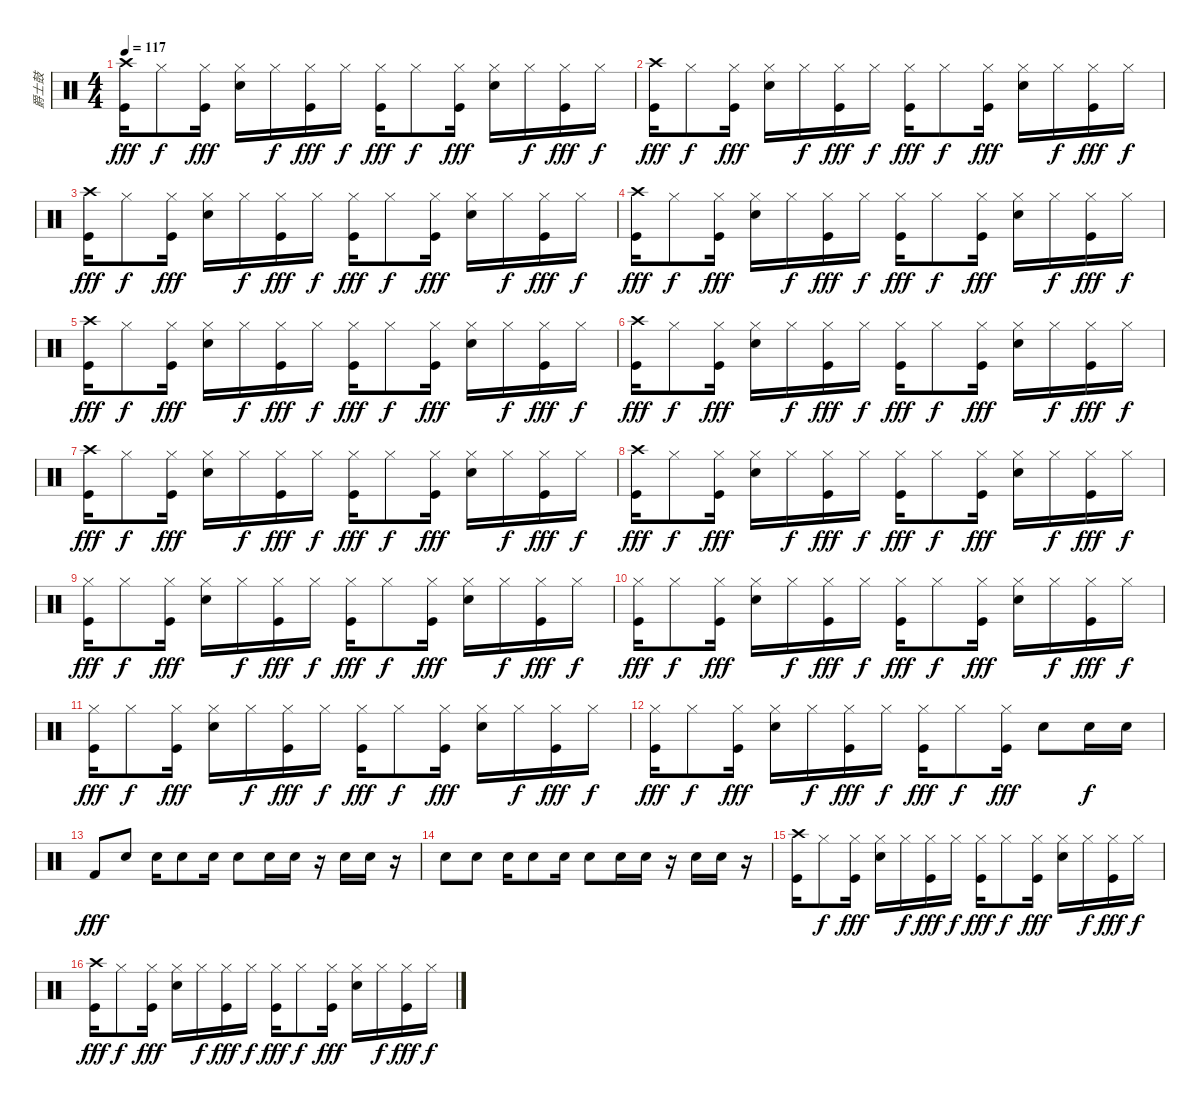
\track ("爵士鼓" "爵士鼓") {instrument percussion}
\staff {score}
\articulation defaults
\ts (4 4)
\tempo 117
\clef neutral
\ks c
("Kick (hit)" "Crash high (hit)").16{dy fff} "Hi-Hat (closed)".8{dy f} ("Kick (hit)" "Hi-Hat (closed)").16{dy fff} ("Snare (hit) 2" "Hi-Hat (closed)").16 "Hi-Hat (closed)".16{dy f} ("Kick (hit)" "Hi-Hat (closed)").16{dy fff} "Hi-Hat (closed)".16{dy f} ("Kick (hit)" "Hi-Hat (closed)").16{dy fff} "Hi-Hat (closed)".8{dy f} ("Kick (hit)" "Hi-Hat (closed)").16{dy fff} ("Snare (hit) 2" "Hi-Hat (closed)").16 "Hi-Hat (closed)".16{dy f} ("Kick (hit)" "Hi-Hat (closed)").16{dy fff} "Hi-Hat (closed)".16{dy f} |
("Kick (hit)" "Crash high (hit)").16{dy fff} "Hi-Hat (closed)".8{dy f} ("Kick (hit)" "Hi-Hat (closed)").16{dy fff} ("Snare (hit) 2" "Hi-Hat (closed)").16 "Hi-Hat (closed)".16{dy f} ("Kick (hit)" "Hi-Hat (closed)").16{dy fff} "Hi-Hat (closed)".16{dy f} ("Kick (hit)" "Hi-Hat (closed)").16{dy fff} "Hi-Hat (closed)".8{dy f} ("Kick (hit)" "Hi-Hat (closed)").16{dy fff} ("Snare (hit) 2" "Hi-Hat (closed)").16 "Hi-Hat (closed)".16{dy f} ("Kick (hit)" "Hi-Hat (closed)").16{dy fff} "Hi-Hat (closed)".16{dy f} |
("Kick (hit)" "Crash high (hit)").16{dy fff} "Hi-Hat (closed)".8{dy f} ("Kick (hit)" "Hi-Hat (closed)").16{dy fff} ("Snare (hit) 2" "Hi-Hat (closed)").16 "Hi-Hat (closed)".16{dy f} ("Kick (hit)" "Hi-Hat (closed)").16{dy fff} "Hi-Hat (closed)".16{dy f} ("Kick (hit)" "Hi-Hat (closed)").16{dy fff} "Hi-Hat (closed)".8{dy f} ("Kick (hit)" "Hi-Hat (closed)").16{dy fff} ("Snare (hit) 2" "Hi-Hat (closed)").16 "Hi-Hat (closed)".16{dy f} ("Kick (hit)" "Hi-Hat (closed)").16{dy fff} "Hi-Hat (closed)".16{dy f} |
("Kick (hit)" "Crash high (hit)").16{dy fff} "Hi-Hat (closed)".8{dy f} ("Kick (hit)" "Hi-Hat (closed)").16{dy fff} ("Snare (hit) 2" "Hi-Hat (closed)").16 "Hi-Hat (closed)".16{dy f} ("Kick (hit)" "Hi-Hat (closed)").16{dy fff} "Hi-Hat (closed)".16{dy f} ("Kick (hit)" "Hi-Hat (closed)").16{dy fff} "Hi-Hat (closed)".8{dy f} ("Kick (hit)" "Hi-Hat (closed)").16{dy fff} ("Snare (hit) 2" "Hi-Hat (closed)").16 "Hi-Hat (closed)".16{dy f} ("Kick (hit)" "Hi-Hat (closed)").16{dy fff} "Hi-Hat (closed)".16{dy f} |
("Kick (hit)" "Crash high (hit)").16{dy fff} "Hi-Hat (closed)".8{dy f} ("Kick (hit)" "Hi-Hat (closed)").16{dy fff} ("Snare (hit) 2" "Hi-Hat (closed)").16 "Hi-Hat (closed)".16{dy f} ("Kick (hit)" "Hi-Hat (closed)").16{dy fff} "Hi-Hat (closed)".16{dy f} ("Kick (hit)" "Hi-Hat (closed)").16{dy fff} "Hi-Hat (closed)".8{dy f} ("Kick (hit)" "Hi-Hat (closed)").16{dy fff} ("Snare (hit) 2" "Hi-Hat (closed)").16 "Hi-Hat (closed)".16{dy f} ("Kick (hit)" "Hi-Hat (closed)").16{dy fff} "Hi-Hat (closed)".16{dy f} |
("Kick (hit)" "Crash high (hit)").16{dy fff} "Hi-Hat (closed)".8{dy f} ("Kick (hit)" "Hi-Hat (closed)").16{dy fff} ("Snare (hit) 2" "Hi-Hat (closed)").16 "Hi-Hat (closed)".16{dy f} ("Kick (hit)" "Hi-Hat (closed)").16{dy fff} "Hi-Hat (closed)".16{dy f} ("Kick (hit)" "Hi-Hat (closed)").16{dy fff} "Hi-Hat (closed)".8{dy f} ("Kick (hit)" "Hi-Hat (closed)").16{dy fff} ("Snare (hit) 2" "Hi-Hat (closed)").16 "Hi-Hat (closed)".16{dy f} ("Kick (hit)" "Hi-Hat (closed)").16{dy fff} "Hi-Hat (closed)".16{dy f} |
("Kick (hit)" "Crash high (hit)").16{dy fff} "Hi-Hat (closed)".8{dy f} ("Kick (hit)" "Hi-Hat (closed)").16{dy fff} ("Snare (hit) 2" "Hi-Hat (closed)").16 "Hi-Hat (closed)".16{dy f} ("Kick (hit)" "Hi-Hat (closed)").16{dy fff} "Hi-Hat (closed)".16{dy f} ("Kick (hit)" "Hi-Hat (closed)").16{dy fff} "Hi-Hat (closed)".8{dy f} ("Kick (hit)" "Hi-Hat (closed)").16{dy fff} ("Snare (hit) 2" "Hi-Hat (closed)").16 "Hi-Hat (closed)".16{dy f} ("Kick (hit)" "Hi-Hat (closed)").16{dy fff} "Hi-Hat (closed)".16{dy f} |
("Kick (hit)" "Crash high (hit)").16{dy fff} "Hi-Hat (closed)".8{dy f} ("Kick (hit)" "Hi-Hat (closed)").16{dy fff} ("Snare (hit) 2" "Hi-Hat (closed)").16 "Hi-Hat (closed)".16{dy f} ("Kick (hit)" "Hi-Hat (closed)").16{dy fff} "Hi-Hat (closed)".16{dy f} ("Kick (hit)" "Hi-Hat (closed)").16{dy fff} "Hi-Hat (closed)".8{dy f} ("Kick (hit)" "Hi-Hat (closed)").16{dy fff} ("Snare (hit) 2" "Hi-Hat (closed)").16 "Hi-Hat (closed)".16{dy f} ("Kick (hit)" "Hi-Hat (closed)").16{dy fff} "Hi-Hat (closed)".16{dy f} |
("Kick (hit)" "Hi-Hat (closed)").16{dy fff} "Hi-Hat (closed)".8{dy f} ("Kick (hit)" "Hi-Hat (closed)").16{dy fff} ("Snare (hit) 2" "Hi-Hat (closed)").16 "Hi-Hat (closed)".16{dy f} ("Kick (hit)" "Hi-Hat (closed)").16{dy fff} "Hi-Hat (closed)".16{dy f} ("Kick (hit)" "Hi-Hat (closed)").16{dy fff} "Hi-Hat (closed)".8{dy f} ("Kick (hit)" "Hi-Hat (closed)").16{dy fff} ("Snare (hit) 2" "Hi-Hat (closed)").16 "Hi-Hat (closed)".16{dy f} ("Kick (hit)" "Hi-Hat (closed)").16{dy fff} "Hi-Hat (closed)".16{dy f} |
("Kick (hit)" "Hi-Hat (closed)").16{dy fff} "Hi-Hat (closed)".8{dy f} ("Kick (hit)" "Hi-Hat (closed)").16{dy fff} ("Snare (hit) 2" "Hi-Hat (closed)").16 "Hi-Hat (closed)".16{dy f} ("Kick (hit)" "Hi-Hat (closed)").16{dy fff} "Hi-Hat (closed)".16{dy f} ("Kick (hit)" "Hi-Hat (closed)").16{dy fff} "Hi-Hat (closed)".8{dy f} ("Kick (hit)" "Hi-Hat (closed)").16{dy fff} ("Snare (hit) 2" "Hi-Hat (closed)").16 "Hi-Hat (closed)".16{dy f} ("Kick (hit)" "Hi-Hat (closed)").16{dy fff} "Hi-Hat (closed)".16{dy f} |
("Kick (hit)" "Hi-Hat (closed)").16{dy fff} "Hi-Hat (closed)".8{dy f} ("Kick (hit)" "Hi-Hat (closed)").16{dy fff} ("Snare (hit) 2" "Hi-Hat (closed)").16 "Hi-Hat (closed)".16{dy f} ("Kick (hit)" "Hi-Hat (closed)").16{dy fff} "Hi-Hat (closed)".16{dy f} ("Kick (hit)" "Hi-Hat (closed)").16{dy fff} "Hi-Hat (closed)".8{dy f} ("Kick (hit)" "Hi-Hat (closed)").16{dy fff} ("Snare (hit) 2" "Hi-Hat (closed)").16 "Hi-Hat (closed)".16{dy f} ("Kick (hit)" "Hi-Hat (closed)").16{dy fff} "Hi-Hat (closed)".16{dy f} |
("Kick (hit)" "Hi-Hat (closed)").16{dy fff} "Hi-Hat (closed)".8{dy f} ("Kick (hit)" "Hi-Hat (closed)").16{dy fff} ("Snare (hit) 2" "Hi-Hat (closed)").16 "Hi-Hat (closed)".16{dy f} ("Kick (hit)" "Hi-Hat (closed)").16{dy fff} "Hi-Hat (closed)".16{dy f} ("Kick (hit)" "Hi-Hat (closed)").16{dy fff} "Hi-Hat (closed)".8{dy f} ("Kick (hit)" "Hi-Hat (closed)").16{dy fff} "Snare (hit) 2".8 "Snare (hit) 2".16{dy f} "Snare (hit) 2".16 |
"Kick (hit) 2".8{dy fff} "Snare (hit) 2".8 "Snare (hit) 2".16 "Snare (hit) 2".8 "Snare (hit) 2".16 "Snare (hit) 2".8 "Snare (hit) 2".16 "Snare (hit) 2".16 r.16 "Snare (hit) 2".16 "Snare (hit) 2".16 r.16 |
"Snare (hit) 2".8 "Snare (hit) 2".8 "Snare (hit) 2".16 "Snare (hit) 2".8 "Snare (hit) 2".16 "Snare (hit) 2".8 "Snare (hit) 2".16 "Snare (hit) 2".16 r.16 "Snare (hit) 2".16 "Snare (hit) 2".16 r.16 |
("Kick (hit)" "Crash high (hit)").16 "Hi-Hat (closed)".8{dy f} ("Kick (hit)" "Hi-Hat (closed)").16{dy fff} ("Snare (hit) 2" "Hi-Hat (closed)").16 "Hi-Hat (closed)".16{dy f} ("Kick (hit)" "Hi-Hat (closed)").16{dy fff} "Hi-Hat (closed)".16{dy f} ("Kick (hit)" "Hi-Hat (closed)").16{dy fff} "Hi-Hat (closed)".8{dy f} ("Kick (hit)" "Hi-Hat (closed)").16{dy fff} ("Snare (hit) 2" "Hi-Hat (closed)").16 "Hi-Hat (closed)".16{dy f} ("Kick (hit)" "Hi-Hat (closed)").16{dy fff} "Hi-Hat (closed)".16{dy f} |
("Kick (hit)" "Crash high (hit)").16{dy fff} "Hi-Hat (closed)".8{dy f} ("Kick (hit)" "Hi-Hat (closed)").16{dy fff} ("Snare (hit) 2" "Hi-Hat (closed)").16 "Hi-Hat (closed)".16{dy f} ("Kick (hit)" "Hi-Hat (closed)").16{dy fff} "Hi-Hat (closed)".16{dy f} ("Kick (hit)" "Hi-Hat (closed)").16{dy fff} "Hi-Hat (closed)".8{dy f} ("Kick (hit)" "Hi-Hat (closed)").16{dy fff} ("Snare (hit) 2" "Hi-Hat (closed)").16 "Hi-Hat (closed)".16{dy f} ("Kick (hit)" "Hi-Hat (closed)").16{dy fff} "Hi-Hat (closed)".16{dy f}
